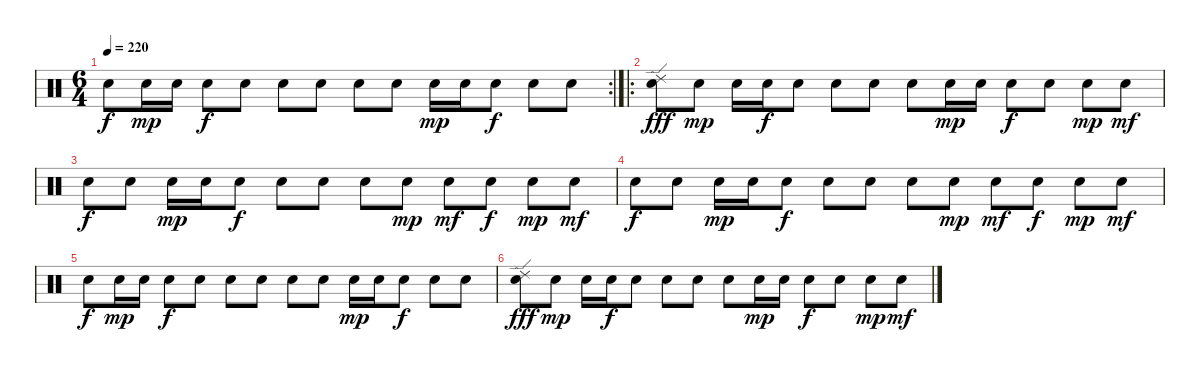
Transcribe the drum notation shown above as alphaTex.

\track "" {instrument percussion}
\staff {score}
\articulation defaults
\rc 2
\ts (6 4)
\tempo 220
\clef neutral
\ks c "Snare (hit) 2".8{dy f} "Snare (hit) 2".16{dy mp} "Snare (hit) 2".16 "Snare (hit) 2".8{dy f} "Snare (hit) 2".8 "Snare (hit) 2".8 "Snare (hit) 2".8 "Snare (hit) 2".8 "Snare (hit) 2".8 "Snare (hit) 2".16{dy mp} "Snare (hit) 2".16 "Snare (hit) 2".8{dy f} "Snare (hit) 2".8 "Snare (hit) 2".8
|
\ro
("Snare (hit) 2" "Ride (edge) 2").8{dy fff} "Snare (hit) 2".8{dy mp} "Snare (hit) 2".16 "Snare (hit) 2".16{dy f} "Snare (hit) 2".8 "Snare (hit) 2".8 "Snare (hit) 2".8 "Snare (hit) 2".8 "Snare (hit) 2".16{dy mp} "Snare (hit) 2".16 "Snare (hit) 2".8{dy f} "Snare (hit) 2".8 "Snare (hit) 2".8{dy mp} "Snare (hit) 2".8{dy mf} |
"Snare (hit) 2".8{dy f} "Snare (hit) 2".8 "Snare (hit) 2".16{dy mp} "Snare (hit) 2".16 "Snare (hit) 2".8{dy f} "Snare (hit) 2".8 "Snare (hit) 2".8 "Snare (hit) 2".8 "Snare (hit) 2".8{dy mp} "Snare (hit) 2".8{dy mf} "Snare (hit) 2".8{dy f} "Snare (hit) 2".8{dy mp} "Snare (hit) 2".8{dy mf} |
"Snare (hit) 2".8{dy f} "Snare (hit) 2".8 "Snare (hit) 2".16{dy mp} "Snare (hit) 2".16 "Snare (hit) 2".8{dy f} "Snare (hit) 2".8 "Snare (hit) 2".8 "Snare (hit) 2".8 "Snare (hit) 2".8{dy mp} "Snare (hit) 2".8{dy mf} "Snare (hit) 2".8{dy f} "Snare (hit) 2".8{dy mp} "Snare (hit) 2".8{dy mf} |
"Snare (hit) 2".8{dy f volume 0} "Snare (hit) 2".16{dy mp} "Snare (hit) 2".16 "Snare (hit) 2".8{dy f} "Snare (hit) 2".8 "Snare (hit) 2".8 "Snare (hit) 2".8 "Snare (hit) 2".8 "Snare (hit) 2".8 "Snare (hit) 2".16{dy mp} "Snare (hit) 2".16 "Snare (hit) 2".8{dy f} "Snare (hit) 2".8 "Snare (hit) 2".8 |
("Snare (hit) 2" "Ride (edge) 2").8{dy fff} "Snare (hit) 2".8{dy mp} "Snare (hit) 2".16 "Snare (hit) 2".16{dy f} "Snare (hit) 2".8 "Snare (hit) 2".8 "Snare (hit) 2".8 "Snare (hit) 2".8 "Snare (hit) 2".16{dy mp} "Snare (hit) 2".16 "Snare (hit) 2".8{dy f} "Snare (hit) 2".8 "Snare (hit) 2".8{dy mp} "Snare (hit) 2".8{dy mf}
